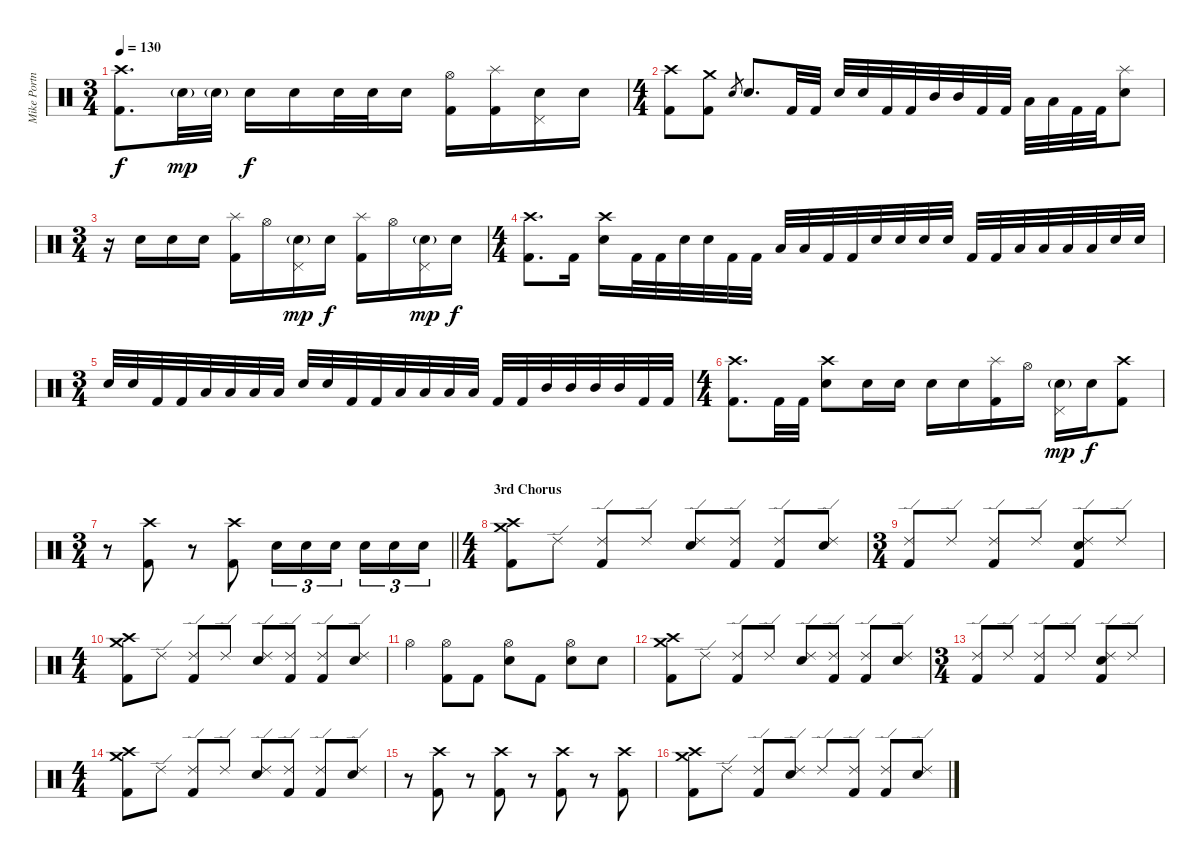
\track ("Mike Portnoy" "Mike Portn") {instrument percussion}
\staff {score}
\articulation defaults
\ts (3 4)
\tempo 130
\clef neutral
\ks c
("Crash high (hit)" "Kick (hit) 2").8{d dy f} "Electric Snare (hit)"{g}.32{dy mp} "Electric Snare (hit)"{g}.32 "Electric Snare (hit)".16{dy f} "Electric Snare (hit)".16 "Electric Snare (hit)".32 "Electric Snare (hit)".32 "Electric Snare (hit)".16 ("Hi-Hat (open)" "Kick (hit) 2").16 ("Splash (hit)" "Kick (hit) 2").16 ("Electric Snare (hit)" "Pedal Hi-Hat (hit)").16 "Electric Snare (hit)".16 |
\ts (4 4)
("Crash high (hit)" "Kick (hit) 2").8 ("Crash medium (hit)" "Kick (hit) 2").8 "Electric Snare (hit)".8{gr} "Electric Snare (hit)".8{d} "Kick (hit) 2".32 "Kick (hit) 2".32 "Electric Snare (hit)".32 "Electric Snare (hit)".32 "Kick (hit) 2".32 "Kick (hit) 2".32 "Mid Tom (hit)".32 "Mid Tom (hit)".32 "Kick (hit) 2".32 "Kick (hit) 2".32 "Low Tom (hit)".32 "Low Tom (hit)".32 "Kick (hit) 2".32 "Kick (hit) 2".32 ("Splash (hit)" "Electric Snare (hit)").8 |
\ts (3 4)
r.16 "Electric Snare (hit)".16 "Electric Snare (hit)".16 "Electric Snare (hit)".16 ("Splash (hit)" "Kick (hit) 2").16 "Hi-Hat (open)".16 ("Electric Snare (hit)"{g} "Pedal Hi-Hat (hit)").16{dy mp} "Electric Snare (hit)".16{dy f} ("Splash (hit)" "Kick (hit) 2").16 "Hi-Hat (open)".16 ("Electric Snare (hit)"{g} "Pedal Hi-Hat (hit)").16{dy mp} "Electric Snare (hit)".16{dy f} |
\ts (4 4)
("Crash high (hit)" "Kick (hit) 2").8{d} "Kick (hit) 2".16 ("Crash high (hit)" "Electric Snare (hit)").16 "Kick (hit) 2".32 "Kick (hit) 2".32 "Electric Snare (hit)".32 "Electric Snare (hit)".32 "Kick (hit) 2".32 "Kick (hit) 2".32 "Low Tom (hit)".32 "Low Tom (hit)".32 "Kick (hit) 2".32 "Kick (hit) 2".32 "Electric Snare (hit)".32 "Electric Snare (hit)".32 "Electric Snare (hit)".32 "Electric Snare (hit)".32 "Kick (hit) 2".32 "Kick (hit) 2".32 "Low Tom (hit)".32 "Low Tom (hit)".32 "Low Tom (hit)".32 "Low Tom (hit)".32 "Electric Snare (hit)".32 "Electric Snare (hit)".32 |
\ts (3 4)
"Electric Snare (hit)".32 "Electric Snare (hit)".32 "Kick (hit) 2".32 "Kick (hit) 2".32 "Low Tom (hit)".32 "Low Tom (hit)".32 "Low Floor Tom (hit)".32 "Low Floor Tom (hit)".32 "Electric Snare (hit)".32 "Electric Snare (hit)".32 "Kick (hit) 2".32 "Kick (hit) 2".32 "Low Tom (hit)".32 "Low Tom (hit)".32 "Low Tom (hit)".32 "Low Tom (hit)".32 "Kick (hit) 2".32 "Kick (hit) 2".32 "Mid Tom (hit)".32 "Mid Tom (hit)".32 "Mid Tom (hit)".32 "Mid Tom (hit)".32 "Kick (hit) 2".32 "Kick (hit) 2".32 |
\ts (4 4)
("Crash high (hit)" "Kick (hit) 2").8{d} "Kick (hit) 2".32 "Kick (hit) 2".32 ("Crash high (hit)" "Electric Snare (hit)").8 "Electric Snare (hit)".16 "Electric Snare (hit)".16 "Electric Snare (hit)".16 "Electric Snare (hit)".16 ("Splash (hit)" "Kick (hit) 2").16 "Hi-Hat (open)".16 ("Electric Snare (hit)"{g} "Pedal Hi-Hat (hit)").16{dy mp} "Electric Snare (hit)".16{dy f} ("Crash high (hit)" "Kick (hit) 2").8 |
\ts (3 4)
\barLineRight lightlight
r.8{volume 0} ("Crash high (hit)" "Kick (hit) 2").8{volume 16} r.8{volume 0} ("Crash high (hit)" "Kick (hit) 2").8{volume 16} "Electric Snare (hit)".16{tu (3 2)} "Electric Snare (hit)".16{tu (3 2)} "Electric Snare (hit)".16{tu (3 2) beam splitsecondary} "Electric Snare (hit)".16{tu (3 2)} "Electric Snare (hit)".16{tu (3 2)} "Electric Snare (hit)".16{tu (3 2)} |
\ts (4 4)
\section ("" "3rd Chorus")
("Crash high (hit)" "Crash medium (hit)" "Kick (hit) 2").8 "Ride (edge) 2".8 ("Ride (edge) 2" "Kick (hit) 2").8 "Ride (edge) 2".8 ("Ride (edge) 2" "Snare (hit) 2").8 ("Ride (edge) 2" "Kick (hit) 2").8 ("Ride (edge) 2" "Kick (hit) 2").8 ("Ride (edge) 2" "Snare (hit) 2").8 |
\ts (3 4)
("Ride (edge) 2" "Kick (hit) 2").8 "Ride (edge) 2".8 ("Ride (edge) 2" "Kick (hit) 2").8 "Ride (edge) 2".8 ("Ride (edge) 2" "Snare (hit) 2" "Kick (hit) 2").8 "Ride (edge) 2".8 |
\ts (4 4)
("Crash high (hit)" "Crash medium (hit)" "Kick (hit) 2").8 "Ride (edge) 2".8 ("Ride (edge) 2" "Kick (hit) 2").8 "Ride (edge) 2".8 ("Ride (edge) 2" "Snare (hit) 2").8 ("Ride (edge) 2" "Kick (hit) 2").8 ("Ride (edge) 2" "Kick (hit) 2").8 ("Ride (edge) 2" "Snare (hit) 2").8 |
"Hi-Hat (open)".4 ("Hi-Hat (open)" "Kick (hit) 2").8 "Kick (hit) 2".8 ("Hi-Hat (open)" "Electric Snare (hit)").8 "Kick (hit) 2".8 ("Hi-Hat (open)" "Electric Snare (hit)").8 "Electric Snare (hit)".8 |
("Crash high (hit)" "Crash medium (hit)" "Kick (hit) 2").8 "Ride (edge) 2".8 ("Ride (edge) 2" "Kick (hit) 2").8 "Ride (edge) 2".8 ("Ride (edge) 2" "Snare (hit) 2").8 ("Ride (edge) 2" "Kick (hit) 2").8 ("Ride (edge) 2" "Kick (hit) 2").8 ("Ride (edge) 2" "Snare (hit) 2").8 |
\ts (3 4)
("Ride (edge) 2" "Kick (hit) 2").8 "Ride (edge) 2".8 ("Ride (edge) 2" "Kick (hit) 2").8 "Ride (edge) 2".8 ("Ride (edge) 2" "Snare (hit) 2" "Kick (hit) 2").8 "Ride (edge) 2".8 |
\ts (4 4)
("Crash high (hit)" "Crash medium (hit)" "Kick (hit) 2").8 "Ride (edge) 2".8 ("Ride (edge) 2" "Kick (hit) 2").8 "Ride (edge) 2".8 ("Ride (edge) 2" "Snare (hit) 2").8 ("Ride (edge) 2" "Kick (hit) 2").8 ("Ride (edge) 2" "Kick (hit) 2").8 ("Ride (edge) 2" "Snare (hit) 2").8 |
r.8{volume 0} ("Crash high (hit)" "Kick (hit) 2").8{volume 16} r.8{volume 0} ("Crash high (hit)" "Kick (hit) 2").8{volume 16} r.8{volume 0} ("Crash high (hit)" "Kick (hit) 2").8{volume 16} r.8{volume 0} ("Crash high (hit)" "Kick (hit) 2").8{volume 16} |
("Crash high (hit)" "Crash medium (hit)" "Kick (hit) 2").8 "Ride (edge) 2".8 ("Ride (edge) 2" "Kick (hit) 2").8 ("Ride (edge) 2" "Snare (hit) 2").8 "Ride (edge) 2".8 ("Ride (edge) 2" "Kick (hit) 2").8 ("Ride (edge) 2" "Kick (hit) 2").8 ("Ride (edge) 2" "Snare (hit) 2").8
